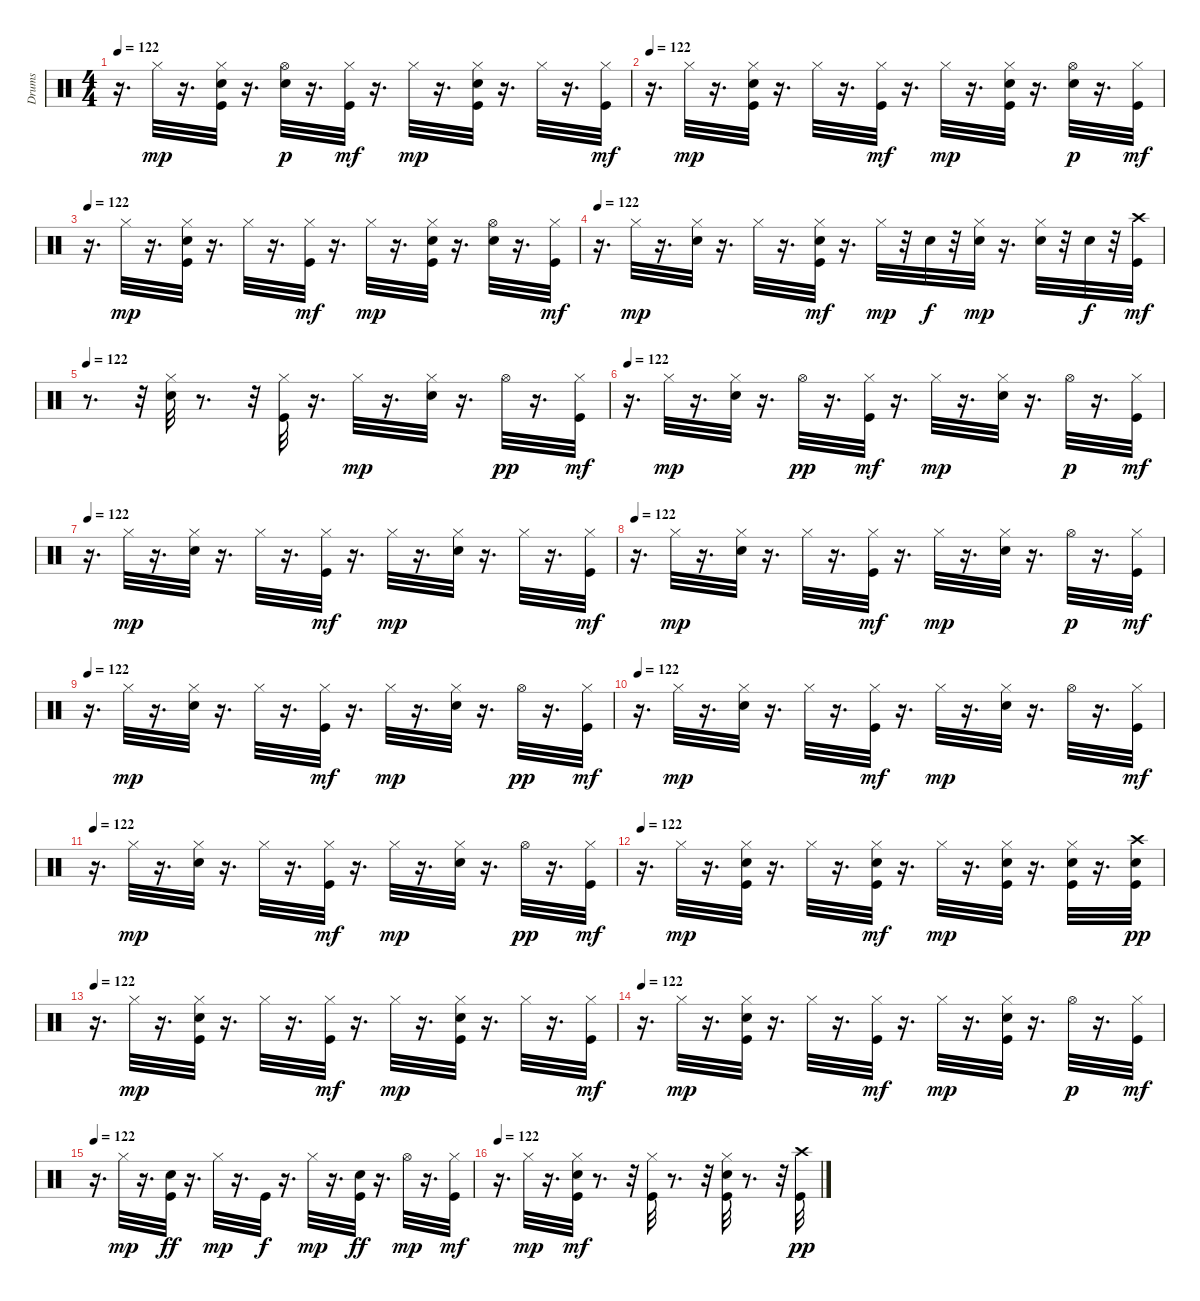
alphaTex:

\track ("Drums" "Drums") {instrument percussion}
\staff {score}
\articulation defaults
\ts (4 4)
\tempo 122
\clef neutral
\ks c
r.16{d dy mf} "Hi-Hat (closed)".32{dy mp} r.16{d} ("Kick (hit)" "Snare (hit) 2" "Hi-Hat (closed)").32 r.16{d} ("Snare (hit) 2" "Hi-Hat (open)").32{dy p} r.16{d} ("Kick (hit)" "Hi-Hat (closed)").32{dy mf} r.16{d} "Hi-Hat (closed)".32{dy mp} r.16{d} ("Kick (hit)" "Snare (hit) 2" "Hi-Hat (closed)").32 r.16{d} "Hi-Hat (closed)".32 r.16{d} ("Kick (hit)" "Hi-Hat (closed)").32{dy mf} |
\tempo 122
r.16{d} "Hi-Hat (closed)".32{dy mp} r.16{d} ("Kick (hit)" "Snare (hit) 2" "Hi-Hat (closed)").32 r.16{d} "Hi-Hat (closed)".32 r.16{d} ("Kick (hit)" "Hi-Hat (closed)").32{dy mf} r.16{d} "Hi-Hat (closed)".32{dy mp} r.16{d} ("Kick (hit)" "Snare (hit) 2" "Hi-Hat (closed)").32 r.16{d} ("Snare (hit) 2" "Hi-Hat (open)").32{dy p} r.16{d} ("Kick (hit)" "Hi-Hat (closed)").32{dy mf} |
\tempo 122
r.16{d} "Hi-Hat (closed)".32{dy mp} r.16{d} ("Kick (hit)" "Snare (hit) 2" "Hi-Hat (closed)").32 r.16{d} "Hi-Hat (closed)".32 r.16{d} ("Kick (hit)" "Hi-Hat (closed)").32{dy mf} r.16{d} "Hi-Hat (closed)".32{dy mp} r.16{d} ("Kick (hit)" "Snare (hit) 2" "Hi-Hat (closed)").32 r.16{d} ("Snare (hit) 2" "Hi-Hat (open)").32 r.16{d} ("Kick (hit)" "Hi-Hat (closed)").32{dy mf} |
\tempo 122
r.16{d} "Hi-Hat (closed)".32{dy mp} r.16{d} ("Snare (hit) 2" "Hi-Hat (closed)").32 r.16{d} "Hi-Hat (closed)".32 r.16{d} ("Kick (hit)" "Snare (hit) 2" "Hi-Hat (closed)").32{dy mf} r.16{d} "Hi-Hat (closed)".32{dy mp} r.32 "Snare (hit) 2".32{dy f} r.32 ("Snare (hit) 2" "Hi-Hat (closed)").32{dy mp} r.16{d} ("Snare (hit) 2" "Hi-Hat (closed)").32 r.32 "Snare (hit) 2".32{dy f} r.32 ("Kick (hit)" "Crash high (hit)").32{dy mf} |
\tempo 122
r.8{d} r.32 ("Snare (hit) 2" "Hi-Hat (closed)").32 r.8{d} r.32 ("Kick (hit)" "Hi-Hat (closed)").32 r.16{d} "Hi-Hat (closed)".32{dy mp} r.16{d} ("Snare (hit) 2" "Hi-Hat (closed)").32 r.16{d} "Hi-Hat (open)".32{dy pp} r.16{d} ("Kick (hit)" "Hi-Hat (closed)").32{dy mf} |
\tempo 122
r.16{d} "Hi-Hat (closed)".32{dy mp} r.16{d} ("Snare (hit) 2" "Hi-Hat (closed)").32 r.16{d} "Hi-Hat (open)".32{dy pp} r.16{d} ("Kick (hit)" "Hi-Hat (closed)").32{dy mf} r.16{d} "Hi-Hat (closed)".32{dy mp} r.16{d} ("Snare (hit) 2" "Hi-Hat (closed)").32 r.16{d} "Hi-Hat (open)".32{dy p} r.16{d} ("Kick (hit)" "Hi-Hat (closed)").32{dy mf} |
\tempo 122
r.16{d} "Hi-Hat (closed)".32{dy mp} r.16{d} ("Snare (hit) 2" "Hi-Hat (closed)").32 r.16{d} "Hi-Hat (closed)".32 r.16{d} ("Kick (hit)" "Hi-Hat (closed)").32{dy mf} r.16{d} "Hi-Hat (closed)".32{dy mp} r.16{d} ("Snare (hit) 2" "Hi-Hat (closed)").32 r.16{d} "Hi-Hat (closed)".32 r.16{d} ("Kick (hit)" "Hi-Hat (closed)").32{dy mf} |
\tempo 122
r.16{d} "Hi-Hat (closed)".32{dy mp} r.16{d} ("Snare (hit) 2" "Hi-Hat (closed)").32 r.16{d} "Hi-Hat (closed)".32 r.16{d} ("Kick (hit)" "Hi-Hat (closed)").32{dy mf} r.16{d} "Hi-Hat (closed)".32{dy mp} r.16{d} ("Snare (hit) 2" "Hi-Hat (closed)").32 r.16{d} "Hi-Hat (open)".32{dy p} r.16{d} ("Kick (hit)" "Hi-Hat (closed)").32{dy mf} |
\tempo 122
r.16{d} "Hi-Hat (closed)".32{dy mp} r.16{d} ("Snare (hit) 2" "Hi-Hat (closed)").32 r.16{d} "Hi-Hat (closed)".32 r.16{d} ("Kick (hit)" "Hi-Hat (closed)").32{dy mf} r.16{d} "Hi-Hat (closed)".32{dy mp} r.16{d} ("Snare (hit) 2" "Hi-Hat (closed)").32 r.16{d} "Hi-Hat (open)".32{dy pp} r.16{d} ("Kick (hit)" "Hi-Hat (closed)").32{dy mf} |
\tempo 122
r.16{d} "Hi-Hat (closed)".32{dy mp} r.16{d} ("Snare (hit) 2" "Hi-Hat (closed)").32 r.16{d} "Hi-Hat (closed)".32 r.16{d} ("Kick (hit)" "Hi-Hat (closed)").32{dy mf} r.16{d} "Hi-Hat (closed)".32{dy mp} r.16{d} ("Snare (hit) 2" "Hi-Hat (closed)").32 r.16{d} "Hi-Hat (open)".32 r.16{d} ("Kick (hit)" "Hi-Hat (closed)").32{dy mf} |
\tempo 122
r.16{d} "Hi-Hat (closed)".32{dy mp} r.16{d} ("Snare (hit) 2" "Hi-Hat (closed)").32 r.16{d} "Hi-Hat (closed)".32 r.16{d} ("Kick (hit)" "Hi-Hat (closed)").32{dy mf} r.16{d} "Hi-Hat (closed)".32{dy mp} r.16{d} ("Snare (hit) 2" "Hi-Hat (closed)").32 r.16{d} "Hi-Hat (open)".32{dy pp} r.16{d} ("Kick (hit)" "Hi-Hat (closed)").32{dy mf} |
\tempo 122
r.16{d} "Hi-Hat (closed)".32{dy mp} r.16{d} ("Kick (hit)" "Snare (hit) 2" "Hi-Hat (closed)").32 r.16{d} "Hi-Hat (closed)".32 r.16{d} ("Kick (hit)" "Snare (hit) 2" "Hi-Hat (closed)").32{dy mf} r.16{d} "Hi-Hat (closed)".32{dy mp} r.16{d} ("Kick (hit)" "Snare (hit) 2" "Hi-Hat (closed)").32 r.16{d} ("Kick (hit)" "Snare (hit) 2" "Hi-Hat (closed)").32 r.16{d} ("Kick (hit)" "Snare (hit) 2" "Crash high (hit)").32{dy pp} |
\tempo 122
r.16{d} "Hi-Hat (closed)".32{dy mp} r.16{d} ("Kick (hit)" "Snare (hit) 2" "Hi-Hat (closed)").32 r.16{d} "Hi-Hat (closed)".32 r.16{d} ("Kick (hit)" "Hi-Hat (closed)").32{dy mf} r.16{d} "Hi-Hat (closed)".32{dy mp} r.16{d} ("Kick (hit)" "Snare (hit) 2" "Hi-Hat (closed)").32 r.16{d} "Hi-Hat (closed)".32 r.16{d} ("Kick (hit)" "Hi-Hat (closed)").32{dy mf} |
\tempo 122
r.16{d} "Hi-Hat (closed)".32{dy mp} r.16{d} ("Kick (hit)" "Snare (hit) 2" "Hi-Hat (closed)").32 r.16{d} "Hi-Hat (closed)".32 r.16{d} ("Kick (hit)" "Hi-Hat (closed)").32{dy mf} r.16{d} "Hi-Hat (closed)".32{dy mp} r.16{d} ("Kick (hit)" "Snare (hit) 2" "Hi-Hat (closed)").32 r.16{d} "Hi-Hat (open)".32{dy p} r.16{d} ("Kick (hit)" "Hi-Hat (closed)").32{dy mf} |
\tempo 122
r.16{d} "Hi-Hat (closed)".32{dy mp} r.16{d} ("Kick (hit)" "Snare (hit) 2").32{dy ff} r.16{d} "Hi-Hat (closed)".32{dy mp} r.16{d} "Kick (hit)".32{dy f} r.16{d} "Hi-Hat (closed)".32{dy mp} r.16{d} ("Kick (hit)" "Snare (hit) 2").32{dy ff} r.16{d} "Hi-Hat (open)".32{dy mp} r.16{d} ("Kick (hit)" "Hi-Hat (closed)").32{dy mf} |
\tempo 122
r.16{d} "Hi-Hat (closed)".32{dy mp} r.16{d} ("Kick (hit)" "Snare (hit) 2" "Hi-Hat (closed)").32{dy mf} r.8{d} r.32 ("Kick (hit)" "Hi-Hat (closed)").32 r.8{d} r.32 ("Kick (hit)" "Snare (hit) 2" "Hi-Hat (closed)").32 r.8{d} r.32 ("Kick (hit)" "Crash high (hit)").32{dy pp}
